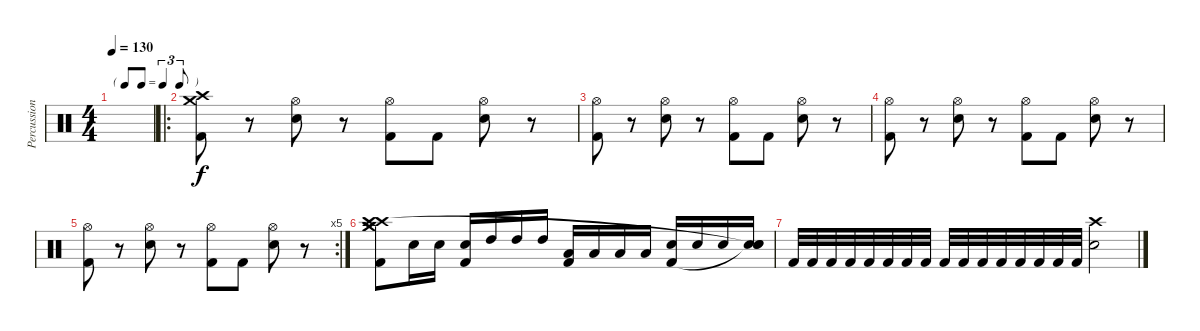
\track ("Percussion" "Percussion") {instrument percussion}
\staff {score}
\articulation defaults
\ts (4 4)
\tf triplet8th
\tempo 130
\clef neutral
\ks c
|
\ro
("Kick (hit) 2" "Crash high (hit)" "Crash medium (hit)").8 r.8 ("Electric Snare (hit)" "Hi-Hat (open)").8 r.8 ("Kick (hit) 2" "Hi-Hat (open)").8 "Kick (hit) 2".8 ("Electric Snare (hit)" "Hi-Hat (open)").8 r.8 |
("Kick (hit) 2" "Hi-Hat (open)").8 r.8 ("Electric Snare (hit)" "Hi-Hat (open)").8 r.8 ("Kick (hit) 2" "Hi-Hat (open)").8 "Kick (hit) 2".8 ("Electric Snare (hit)" "Hi-Hat (open)").8 r.8 |
("Kick (hit) 2" "Hi-Hat (open)").8 r.8 ("Electric Snare (hit)" "Hi-Hat (open)").8 r.8 ("Kick (hit) 2" "Hi-Hat (open)").8 "Kick (hit) 2".8 ("Electric Snare (hit)" "Hi-Hat (open)").8 r.8 |
\rc 5
("Kick (hit) 2" "Hi-Hat (open)").8 r.8 ("Electric Snare (hit)" "Hi-Hat (open)").8 r.8 ("Kick (hit) 2" "Hi-Hat (open)").8 "Kick (hit) 2".8 ("Electric Snare (hit)" "Hi-Hat (open)").8 r.8 |
("Kick (hit) 2" "Crash medium (hit)" "Crash high (hit)" "Crash high (hit)" "Crash medium (hit)").8 "Electric Snare (hit)".16 "Electric Snare (hit)".16 ("Electric Snare (hit)" "Kick (hit) 2").16 "High Tom (hit)".16 "High Tom (hit)".16 "High Tom (hit)".16 ("Low Tom (hit)" "Kick (hit) 2").16 "Low Tom (hit)".16 "Low Tom (hit)".16 "Low Tom (hit)".16 ("Electric Snare (hit)" "Kick (hit) 2").16 "Electric Snare (hit)".16 "Electric Snare (hit)".16 ("Electric Snare (hit)" "Snare (hit)"{t} "Snare (hit)"{t}).16 |
"Kick (hit) 2".32 "Kick (hit) 2".32 "Kick (hit) 2".32 "Kick (hit) 2".32 "Kick (hit) 2".32 "Kick (hit) 2".32 "Kick (hit) 2".32 "Kick (hit) 2".32 "Kick (hit) 2".32 "Kick (hit) 2".32 "Kick (hit) 2".32 "Kick (hit) 2".32 "Kick (hit) 2".32 "Kick (hit) 2".32 "Kick (hit) 2".32 "Kick (hit) 2".32 ("Electric Snare (hit)" "Crash high (hit)").2
